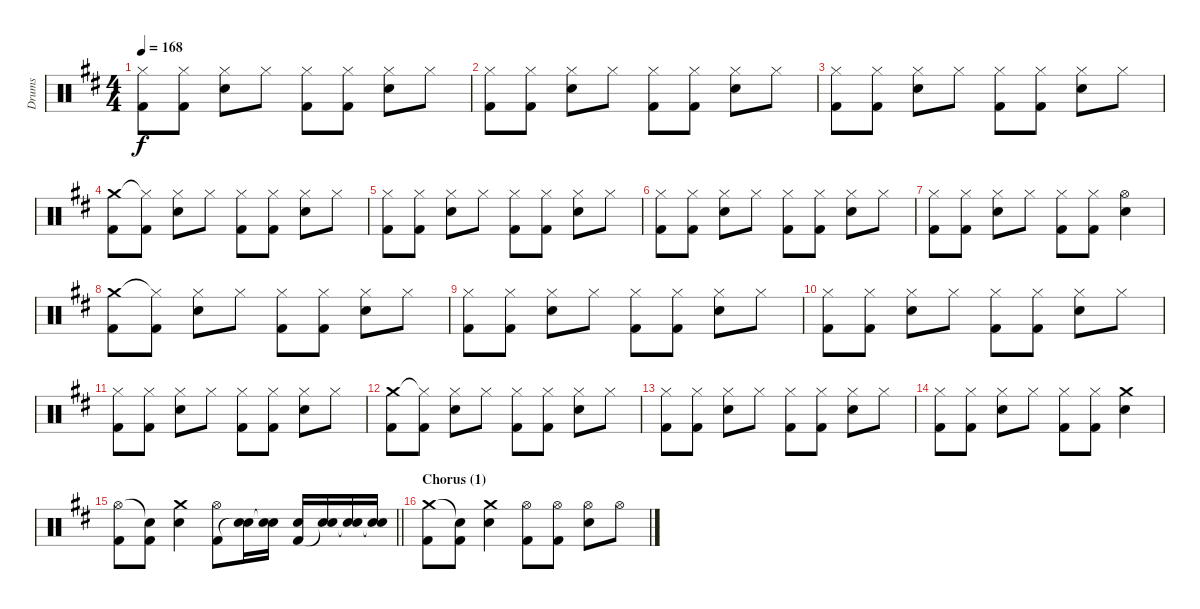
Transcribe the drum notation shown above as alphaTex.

\track ("Drums" "Drums") {instrument percussion}
\staff {score}
\articulation defaults
\ts (4 4)
\tempo 168
\clef neutral
\ks d
("Hi-Hat (closed)" "Kick (hit) 2").8{dy f} ("Hi-Hat (closed)" "Kick (hit) 2").8 ("Hi-Hat (closed)" "Electric Snare (hit)").8 "Hi-Hat (closed)".8 ("Hi-Hat (closed)" "Kick (hit) 2").8 ("Hi-Hat (closed)" "Kick (hit) 2").8 ("Hi-Hat (closed)" "Electric Snare (hit)").8 "Hi-Hat (closed)".8 |
("Hi-Hat (closed)" "Kick (hit) 2").8 ("Hi-Hat (closed)" "Kick (hit) 2").8 ("Hi-Hat (closed)" "Electric Snare (hit)").8 "Hi-Hat (closed)".8 ("Hi-Hat (closed)" "Kick (hit) 2").8 ("Hi-Hat (closed)" "Kick (hit) 2").8 ("Hi-Hat (closed)" "Electric Snare (hit)").8 "Hi-Hat (closed)".8 |
("Hi-Hat (closed)" "Kick (hit) 2").8 ("Hi-Hat (closed)" "Kick (hit) 2").8 ("Hi-Hat (closed)" "Electric Snare (hit)").8 "Hi-Hat (closed)".8 ("Hi-Hat (closed)" "Kick (hit) 2").8 ("Hi-Hat (closed)" "Kick (hit) 2").8 ("Hi-Hat (closed)" "Electric Snare (hit)").8 "Hi-Hat (closed)".8 |
("Crash medium (hit)" "Kick (hit) 2").8 ("Hi-Hat (closed)"{t} "Kick (hit) 2").8 ("Hi-Hat (closed)" "Electric Snare (hit)").8 "Hi-Hat (closed)".8 ("Hi-Hat (closed)" "Kick (hit) 2").8 ("Hi-Hat (closed)" "Kick (hit) 2").8 ("Hi-Hat (closed)" "Electric Snare (hit)").8 "Hi-Hat (closed)".8 |
("Hi-Hat (closed)" "Kick (hit) 2").8 ("Hi-Hat (closed)" "Kick (hit) 2").8 ("Hi-Hat (closed)" "Electric Snare (hit)").8 "Hi-Hat (closed)".8 ("Hi-Hat (closed)" "Kick (hit) 2").8 ("Hi-Hat (closed)" "Kick (hit) 2").8 ("Hi-Hat (closed)" "Electric Snare (hit)").8 "Hi-Hat (closed)".8 |
("Hi-Hat (closed)" "Kick (hit) 2").8 ("Hi-Hat (closed)" "Kick (hit) 2").8 ("Hi-Hat (closed)" "Electric Snare (hit)").8 "Hi-Hat (closed)".8 ("Hi-Hat (closed)" "Kick (hit) 2").8 ("Hi-Hat (closed)" "Kick (hit) 2").8 ("Hi-Hat (closed)" "Electric Snare (hit)").8 "Hi-Hat (closed)".8 |
("Hi-Hat (closed)" "Kick (hit) 2").8 ("Hi-Hat (closed)" "Kick (hit) 2").8 ("Hi-Hat (closed)" "Electric Snare (hit)").8 "Hi-Hat (closed)".8 ("Hi-Hat (closed)" "Kick (hit) 2").8 ("Hi-Hat (closed)" "Kick (hit) 2").8 ("Hi-Hat (open)" "Electric Snare (hit)").4 |
("Crash medium (hit)" "Kick (hit) 2").8 ("Hi-Hat (closed)"{t} "Kick (hit) 2").8 ("Hi-Hat (closed)" "Electric Snare (hit)").8 "Hi-Hat (closed)".8 ("Hi-Hat (closed)" "Kick (hit) 2").8 ("Hi-Hat (closed)" "Kick (hit) 2").8 ("Hi-Hat (closed)" "Electric Snare (hit)").8 "Hi-Hat (closed)".8 |
("Hi-Hat (closed)" "Kick (hit) 2").8 ("Hi-Hat (closed)" "Kick (hit) 2").8 ("Hi-Hat (closed)" "Electric Snare (hit)").8 "Hi-Hat (closed)".8 ("Hi-Hat (closed)" "Kick (hit) 2").8 ("Hi-Hat (closed)" "Kick (hit) 2").8 ("Hi-Hat (closed)" "Electric Snare (hit)").8 "Hi-Hat (closed)".8 |
("Hi-Hat (closed)" "Kick (hit) 2").8 ("Hi-Hat (closed)" "Kick (hit) 2").8 ("Hi-Hat (closed)" "Electric Snare (hit)").8 "Hi-Hat (closed)".8 ("Hi-Hat (closed)" "Kick (hit) 2").8 ("Hi-Hat (closed)" "Kick (hit) 2").8 ("Hi-Hat (closed)" "Electric Snare (hit)").8 "Hi-Hat (closed)".8 |
("Hi-Hat (closed)" "Kick (hit) 2").8 ("Hi-Hat (closed)" "Kick (hit) 2").8 ("Hi-Hat (closed)" "Electric Snare (hit)").8 "Hi-Hat (closed)".8 ("Hi-Hat (closed)" "Kick (hit) 2").8 ("Hi-Hat (closed)" "Kick (hit) 2").8 ("Hi-Hat (closed)" "Electric Snare (hit)").8 "Hi-Hat (closed)".8 |
("Crash medium (hit)" "Kick (hit) 2").8 ("Hi-Hat (closed)"{t} "Kick (hit) 2").8 ("Hi-Hat (closed)" "Electric Snare (hit)").8 "Hi-Hat (closed)".8 ("Hi-Hat (closed)" "Kick (hit) 2").8 ("Hi-Hat (closed)" "Kick (hit) 2").8 ("Hi-Hat (closed)" "Electric Snare (hit)").8 "Hi-Hat (closed)".8 |
("Hi-Hat (closed)" "Kick (hit) 2").8 ("Hi-Hat (closed)" "Kick (hit) 2").8 ("Hi-Hat (closed)" "Electric Snare (hit)").8 "Hi-Hat (closed)".8 ("Hi-Hat (closed)" "Kick (hit) 2").8 ("Hi-Hat (closed)" "Kick (hit) 2").8 ("Hi-Hat (closed)" "Electric Snare (hit)").8 "Hi-Hat (closed)".8 |
("Hi-Hat (closed)" "Kick (hit) 2").8 ("Hi-Hat (closed)" "Kick (hit) 2").8 ("Hi-Hat (closed)" "Electric Snare (hit)").8 "Hi-Hat (closed)".8 ("Hi-Hat (closed)" "Kick (hit) 2").8 ("Hi-Hat (closed)" "Kick (hit) 2").8 ("Crash medium (hit)" "Electric Snare (hit)").4 |
\barLineRight lightlight
("Hi-Hat (open)" "Kick (hit) 2").8 ("Snare (hit)"{t} "Kick (hit) 2").8 ("Crash medium (hit)" "Electric Snare (hit)").4 ("Hi-Hat (open)" "Kick (hit) 2").8 ("Electric Snare (hit)" "Snare (hit)"{t}).16 ("Electric Snare (hit)" "Snare (hit)"{t}).16 ("Electric Snare (hit)" "Kick (hit) 2").16 ("Electric Snare (hit)" "Snare (hit)"{t}).16 ("Electric Snare (hit)" "Snare (hit)"{t}).16 ("Electric Snare (hit)" "Snare (hit)"{t}).16 |
\section ("" "Chorus (1)")
("Crash medium (hit)" "Kick (hit) 2").8 ("Snare (hit)"{t} "Kick (hit) 2").8 ("Crash medium (hit)" "Electric Snare (hit)").4 ("Hi-Hat (open)" "Kick (hit) 2").8 ("Hi-Hat (open)" "Kick (hit) 2").8 ("Hi-Hat (open)" "Electric Snare (hit)").8 "Hi-Hat (open)".8
